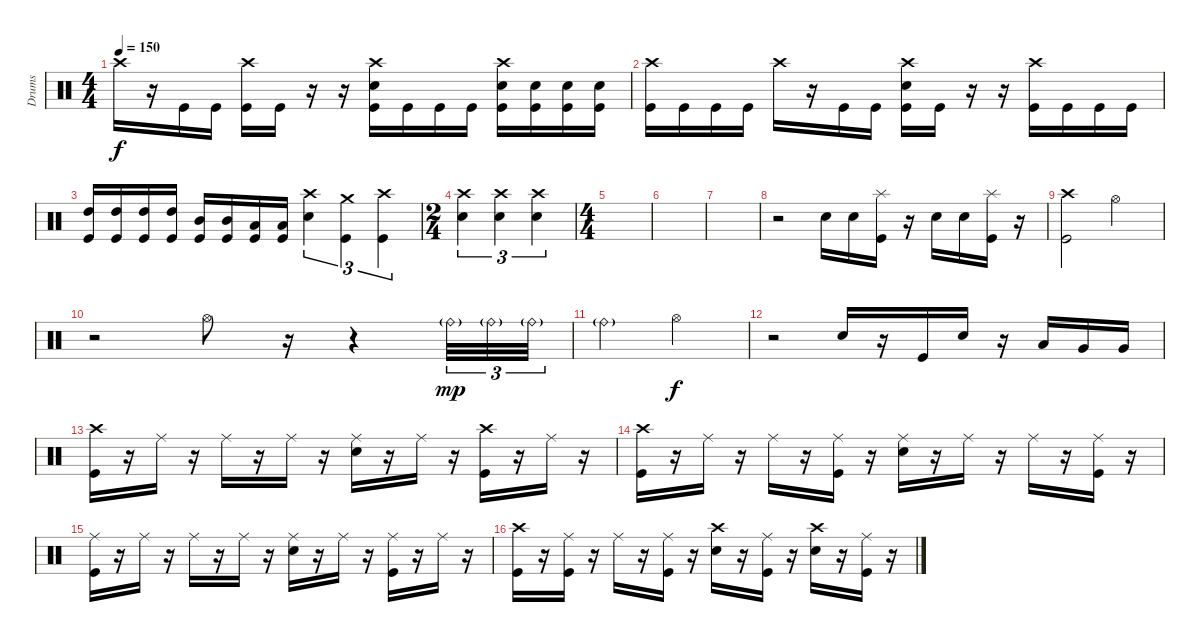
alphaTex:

\track ("Drums" "Drums") {instrument percussion}
\staff {score}
\articulation defaults
\ts (4 4)
\tempo 150
\clef neutral
\ks c "Crash high (hit)".16{dy f}
r.16 "Kick (hit)".16 "Kick (hit)".16 ("Crash high (hit)" "Kick (hit)").16 "Kick (hit)".16 r.16 r.16 ("Crash high (hit)" "Electric Snare (hit)" "Kick (hit)").16 "Kick (hit)".16 "Kick (hit)".16 "Kick (hit)".16 ("Crash high (hit)" "Electric Snare (hit)" "Kick (hit)").16 ("Electric Snare (hit)" "Kick (hit)").16 ("Electric Snare (hit)" "Kick (hit)").16 ("Electric Snare (hit)" "Kick (hit)").16 |
("Crash high (hit)" "Kick (hit)").16 "Kick (hit)".16 "Kick (hit)".16 "Kick (hit)".16 "Crash high (hit)".16 r.16 "Kick (hit)".16 "Kick (hit)".16 ("Crash high (hit)" "Electric Snare (hit)" "Kick (hit)").16 "Kick (hit)".16 r.16 r.16 ("Crash high (hit)" "Kick (hit)").16 "Kick (hit)".16 "Kick (hit)".16 "Kick (hit)".16 |
("High Tom (hit)" "Kick (hit)").16 ("High Tom (hit)" "Kick (hit)").16 ("High Tom (hit)" "Kick (hit)").16 ("High Tom (hit)" "Kick (hit)").16 ("Mid Tom (hit)" "Kick (hit)").16 ("Mid Tom (hit)" "Kick (hit)").16 ("Low Tom (hit)" "Kick (hit)").16 ("Low Tom (hit)" "Kick (hit)").16 ("Crash high (hit)" "Electric Snare (hit)").4{tu (3 2)} ("Crash medium (hit)" "Kick (hit)").4{tu (3 2)} ("Crash high (hit)" "Kick (hit)").4{tu (3 2)} |
\ts (2 4)
("Crash high (hit)" "Electric Snare (hit)").4{tu (3 2)} ("Crash high (hit)" "Electric Snare (hit)").4{tu (3 2)} ("Crash high (hit)" "Electric Snare (hit)").4{tu (3 2)} |
\ts (4 4)
|
|
|
r.2 "Electric Snare (hit)".16 "Electric Snare (hit)".16 ("Splash (hit)" "Kick (hit)").16 r.16 "Electric Snare (hit)".16 "Electric Snare (hit)".16 ("Splash (hit)" "Kick (hit)").16 r.16 |
("Crash high (hit)" "Kick (hit)").2 "Hi-Hat (open)".2 |
r.2 "Hi-Hat (open)".8 r.16 r.4 "Ride (bell)"{g}.32{tu (3 2) dy mp} "Ride (bell)"{g}.32{tu (3 2)} "Ride (bell)"{g}.32{tu (3 2)} |
"Ride (bell)"{g}.2 "Hi-Hat (open)".2{dy f} |
r.2 "Electric Snare (hit)".16 r.16 "Kick (hit)".16 "Electric Snare (hit)".16 r.16 "Low Tom (hit)".16 "Very Low Tom (hit)".16 "Very Low Tom (hit)".16 |
("Crash high (hit)" "Kick (hit)").16 r.16 "Ride (middle)".16 r.16 "Ride (middle)".16 r.16 "Ride (middle)".16 r.16 ("Ride (middle)" "Electric Snare (hit)").16 r.16 "Ride (middle)".16 r.16 ("Crash high (hit)" "Kick (hit)").16 r.16 "Ride (middle)".16 r.16 |
("Crash high (hit)" "Kick (hit)").16 r.16 "Ride (middle)".16 r.16 "Ride (middle)".16 r.16 ("Ride (middle)" "Kick (hit)").16 r.16 ("Ride (middle)" "Electric Snare (hit)").16 r.16 "Ride (middle)".16 r.16 "Ride (middle)".16 r.16 ("Ride (middle)" "Kick (hit)").16 r.16 |
("Ride (middle)" "Kick (hit)").16 r.16 "Ride (middle)".16 r.16 "Ride (middle)".16 r.16 "Ride (middle)".16 r.16 ("Ride (middle)" "Electric Snare (hit)").16 r.16 "Ride (middle)".16 r.16 ("Ride (middle)" "Kick (hit)").16 r.16 "Ride (middle)".16 r.16 |
("Crash high (hit)" "Kick (hit)").16 r.16 ("Ride (middle)" "Kick (hit)").16 r.16 "Ride (middle)".16 r.16 ("Ride (middle)" "Kick (hit)").16 r.16 ("Crash high (hit)" "Electric Snare (hit)").16 r.16 ("Ride (middle)" "Kick (hit)").16 r.16 ("Crash high (hit)" "Electric Snare (hit)").16 r.16 ("Ride (middle)" "Kick (hit)").16 r.16
